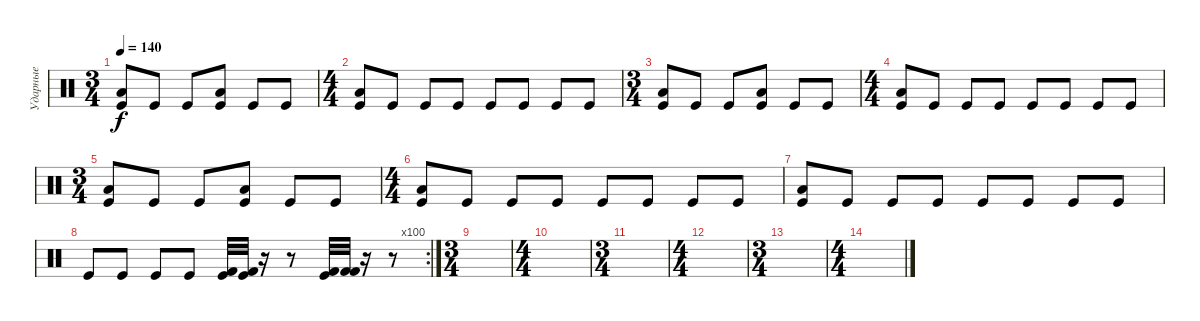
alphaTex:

\track ("Ударные" "Ударные") {instrument percussion}
\staff {score}
\articulation defaults
\ts (3 4)
\tempo 140
\clef neutral
\ks c
("Kick (hit)" "Low Floor Tom (hit)").8{dy f volume 8} "Kick (hit)".8 "Kick (hit)".8 ("Kick (hit)" "Low Floor Tom (hit)").8 "Kick (hit)".8 "Kick (hit)".8 |
\ts (4 4)
("Kick (hit)" "Low Floor Tom (hit)").8 "Kick (hit)".8 "Kick (hit)".8 "Kick (hit)".8 "Kick (hit)".8 "Kick (hit)".8 "Kick (hit)".8 "Kick (hit)".8 |
\ts (3 4)
("Kick (hit)" "Low Floor Tom (hit)").8 "Kick (hit)".8 "Kick (hit)".8 ("Kick (hit)" "Low Floor Tom (hit)").8 "Kick (hit)".8 "Kick (hit)".8 |
\ts (4 4)
("Kick (hit)" "Low Floor Tom (hit)").8 "Kick (hit)".8 "Kick (hit)".8 "Kick (hit)".8 "Kick (hit)".8 "Kick (hit)".8 "Kick (hit)".8 "Kick (hit)".8 |
\ts (3 4)
("Kick (hit)" "Low Floor Tom (hit)").8 "Kick (hit)".8 "Kick (hit)".8 ("Kick (hit)" "Low Floor Tom (hit)").8 "Kick (hit)".8 "Kick (hit)".8 |
\ts (4 4)
("Kick (hit)" "Low Floor Tom (hit)").8 "Kick (hit)".8 "Kick (hit)".8 "Kick (hit)".8 "Kick (hit)".8 "Kick (hit)".8 "Kick (hit)".8 "Kick (hit)".8 |
("Kick (hit)" "Low Floor Tom (hit)").8 "Kick (hit)".8 "Kick (hit)".8 "Kick (hit)".8 "Kick (hit)".8 "Kick (hit)".8 "Kick (hit)".8 "Kick (hit)".8 |
\rc 100 "Kick (hit)".8 "Kick (hit)".8 "Kick (hit)".8 "Kick (hit)".8
("Kick (hit)" "Kick (hit) 2").32 ("Kick (hit)" "Kick (hit) 2").32 r.16 r.8 ("Kick (hit)" "Kick (hit) 2").32 ("Kick (hit) 2" "Kick (hit) 2").32 r.16 r.8 |
\ts (3 4)
|
\ts (4 4)
|
\ts (3 4)
|
\ts (4 4)
|
\ts (3 4)
|
\ts (4 4)
